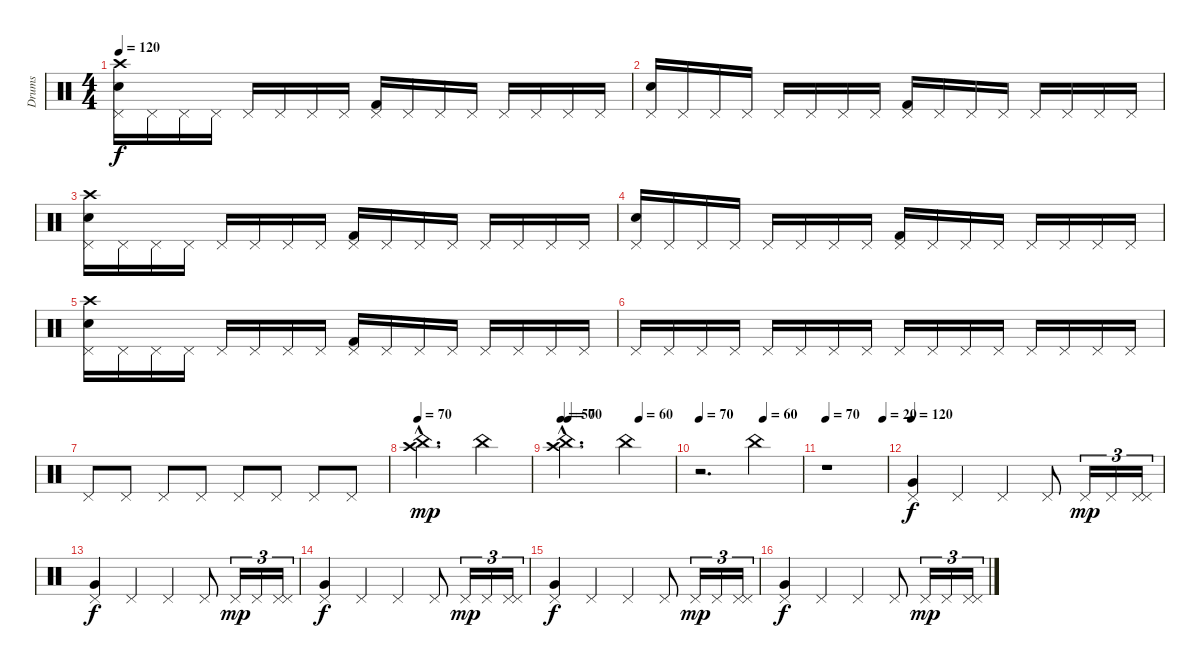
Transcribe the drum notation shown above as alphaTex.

\track ("Drums" "Drums") {instrument percussion}
\staff {score}
\articulation defaults
\ts (4 4)
\tempo 120
\clef neutral
\ks c
("Pedal Hi-Hat (hit)" "Snare (hit) 2" "Crash high (hit)").16{dy f} "Pedal Hi-Hat (hit)".16 "Pedal Hi-Hat (hit)".16 "Pedal Hi-Hat (hit)".16 "Pedal Hi-Hat (hit)".16 "Pedal Hi-Hat (hit)".16 "Pedal Hi-Hat (hit)".16 "Pedal Hi-Hat (hit)".16 ("Pedal Hi-Hat (hit)" "Kick (hit) 2").16 "Pedal Hi-Hat (hit)".16 "Pedal Hi-Hat (hit)".16 "Pedal Hi-Hat (hit)".16 "Pedal Hi-Hat (hit)".16 "Pedal Hi-Hat (hit)".16 "Pedal Hi-Hat (hit)".16 "Pedal Hi-Hat (hit)".16 |
("Pedal Hi-Hat (hit)" "Snare (hit) 2").16 "Pedal Hi-Hat (hit)".16 "Pedal Hi-Hat (hit)".16 "Pedal Hi-Hat (hit)".16 "Pedal Hi-Hat (hit)".16 "Pedal Hi-Hat (hit)".16 "Pedal Hi-Hat (hit)".16 "Pedal Hi-Hat (hit)".16 ("Pedal Hi-Hat (hit)" "Kick (hit) 2").16 "Pedal Hi-Hat (hit)".16 "Pedal Hi-Hat (hit)".16 "Pedal Hi-Hat (hit)".16 "Pedal Hi-Hat (hit)".16 "Pedal Hi-Hat (hit)".16 "Pedal Hi-Hat (hit)".16 "Pedal Hi-Hat (hit)".16 |
("Pedal Hi-Hat (hit)" "Snare (hit) 2" "Crash high (hit)").16 "Pedal Hi-Hat (hit)".16 "Pedal Hi-Hat (hit)".16 "Pedal Hi-Hat (hit)".16 "Pedal Hi-Hat (hit)".16 "Pedal Hi-Hat (hit)".16 "Pedal Hi-Hat (hit)".16 "Pedal Hi-Hat (hit)".16 ("Pedal Hi-Hat (hit)" "Kick (hit) 2").16 "Pedal Hi-Hat (hit)".16 "Pedal Hi-Hat (hit)".16 "Pedal Hi-Hat (hit)".16 "Pedal Hi-Hat (hit)".16 "Pedal Hi-Hat (hit)".16 "Pedal Hi-Hat (hit)".16 "Pedal Hi-Hat (hit)".16 |
("Pedal Hi-Hat (hit)" "Snare (hit) 2").16 "Pedal Hi-Hat (hit)".16 "Pedal Hi-Hat (hit)".16 "Pedal Hi-Hat (hit)".16 "Pedal Hi-Hat (hit)".16 "Pedal Hi-Hat (hit)".16 "Pedal Hi-Hat (hit)".16 "Pedal Hi-Hat (hit)".16 ("Pedal Hi-Hat (hit)" "Kick (hit) 2").16 "Pedal Hi-Hat (hit)".16 "Pedal Hi-Hat (hit)".16 "Pedal Hi-Hat (hit)".16 "Pedal Hi-Hat (hit)".16 "Pedal Hi-Hat (hit)".16 "Pedal Hi-Hat (hit)".16 "Pedal Hi-Hat (hit)".16 |
("Pedal Hi-Hat (hit)" "Snare (hit) 2" "Crash high (hit)").16 "Pedal Hi-Hat (hit)".16 "Pedal Hi-Hat (hit)".16 "Pedal Hi-Hat (hit)".16 "Pedal Hi-Hat (hit)".16 "Pedal Hi-Hat (hit)".16 "Pedal Hi-Hat (hit)".16 "Pedal Hi-Hat (hit)".16 ("Pedal Hi-Hat (hit)" "Kick (hit) 2").16 "Pedal Hi-Hat (hit)".16 "Pedal Hi-Hat (hit)".16 "Pedal Hi-Hat (hit)".16 "Pedal Hi-Hat (hit)".16 "Pedal Hi-Hat (hit)".16 "Pedal Hi-Hat (hit)".16 "Pedal Hi-Hat (hit)".16 |
"Pedal Hi-Hat (hit)".16 "Pedal Hi-Hat (hit)".16 "Pedal Hi-Hat (hit)".16 "Pedal Hi-Hat (hit)".16 "Pedal Hi-Hat (hit)".16 "Pedal Hi-Hat (hit)".16 "Pedal Hi-Hat (hit)".16 "Pedal Hi-Hat (hit)".16 "Pedal Hi-Hat (hit)".16 "Pedal Hi-Hat (hit)".16 "Pedal Hi-Hat (hit)".16 "Pedal Hi-Hat (hit)".16 "Pedal Hi-Hat (hit)".16 "Pedal Hi-Hat (hit)".16 "Pedal Hi-Hat (hit)".16 "Pedal Hi-Hat (hit)".16 |
"Pedal Hi-Hat (hit)".8 "Pedal Hi-Hat (hit)".8 "Pedal Hi-Hat (hit)".8 "Pedal Hi-Hat (hit)".8 "Pedal Hi-Hat (hit)".8 "Pedal Hi-Hat (hit)".8 "Pedal Hi-Hat (hit)".8 "Pedal Hi-Hat (hit)".8 |
\tempo 70
("China (hit)"{hac} "Crash high (hit)"{hac}).2{d dy mp} "China (hit)".4 |
\tempo 50
\tempo (70 0.0625)
\tempo (60 0.6875)
("Crash high (hit)"{hac} "China (hit)"{hac}).2{d} "China (hit)".4 |
\tempo 70
\tempo (60 0.625)
r.2{d} "China (hit)".4 |
\tempo 70
\tempo (20 0.9375)
r.1 |
\tempo 120
("Pedal Hi-Hat (hit)" "Very Low Tom (hit)").4{dy f} "Pedal Hi-Hat (hit)".4 "Pedal Hi-Hat (hit)".4 "Pedal Hi-Hat (hit)".8 "Pedal Hi-Hat (hit)".16{tu (3 2) dy mp} "Pedal Hi-Hat (hit)".16{tu (3 2)} ("Pedal Hi-Hat (hit)" "Pedal Hi-Hat (hit)").16{tu (3 2)} |
("Pedal Hi-Hat (hit)" "Very Low Tom (hit)").4{dy f} "Pedal Hi-Hat (hit)".4 "Pedal Hi-Hat (hit)".4 "Pedal Hi-Hat (hit)".8 "Pedal Hi-Hat (hit)".16{tu (3 2) dy mp} "Pedal Hi-Hat (hit)".16{tu (3 2)} ("Pedal Hi-Hat (hit)" "Pedal Hi-Hat (hit)").16{tu (3 2)} |
("Pedal Hi-Hat (hit)" "Very Low Tom (hit)").4{dy f} "Pedal Hi-Hat (hit)".4 "Pedal Hi-Hat (hit)".4 "Pedal Hi-Hat (hit)".8 "Pedal Hi-Hat (hit)".16{tu (3 2) dy mp} "Pedal Hi-Hat (hit)".16{tu (3 2)} ("Pedal Hi-Hat (hit)" "Pedal Hi-Hat (hit)").16{tu (3 2)} |
("Pedal Hi-Hat (hit)" "Very Low Tom (hit)").4{dy f} "Pedal Hi-Hat (hit)".4 "Pedal Hi-Hat (hit)".4 "Pedal Hi-Hat (hit)".8 "Pedal Hi-Hat (hit)".16{tu (3 2) dy mp} "Pedal Hi-Hat (hit)".16{tu (3 2)} ("Pedal Hi-Hat (hit)" "Pedal Hi-Hat (hit)").16{tu (3 2)} |
("Pedal Hi-Hat (hit)" "Very Low Tom (hit)").4{dy f} "Pedal Hi-Hat (hit)".4 "Pedal Hi-Hat (hit)".4 "Pedal Hi-Hat (hit)".8 "Pedal Hi-Hat (hit)".16{tu (3 2) dy mp} "Pedal Hi-Hat (hit)".16{tu (3 2)} ("Pedal Hi-Hat (hit)" "Pedal Hi-Hat (hit)").16{tu (3 2)}
